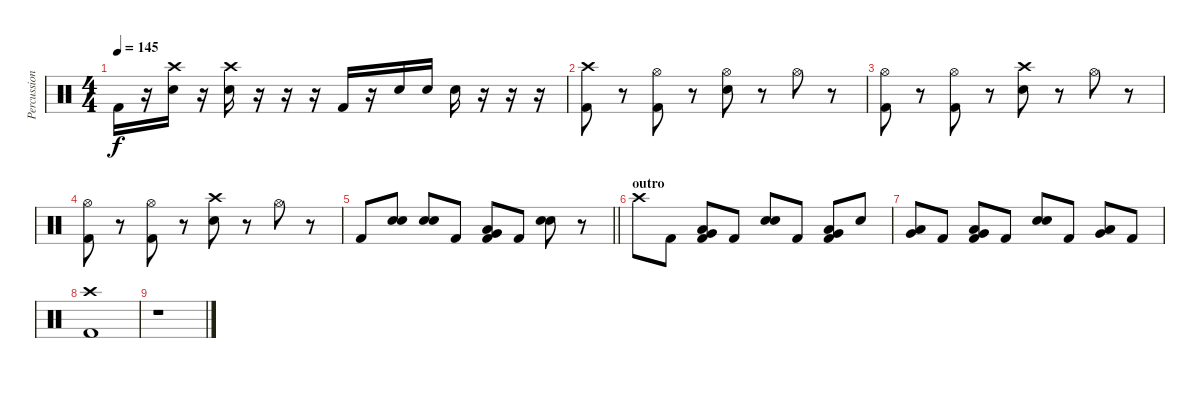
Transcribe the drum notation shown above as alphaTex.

\track ("Percussion" "Percussion") {instrument percussion}
\staff {score}
\articulation defaults
\ts (4 4)
\tempo 145
\clef neutral
\ks c "Kick (hit) 2".16{dy f}
r.16 ("Crash high (hit)" "Electric Snare (hit)").16 r.16 ("Crash high (hit)" "Electric Snare (hit)").16 r.16 r.16 r.16 "Kick (hit) 2".16 r.16 "Electric Snare (hit)".16 "Electric Snare (hit)".16 "Electric Snare (hit)".16 r.16 r.16 r.16 |
("Crash high (hit)" "Kick (hit) 2").8 r.8 ("Hi-Hat (open)" "Kick (hit) 2").8 r.8 ("Hi-Hat (open)" "Electric Snare (hit)").8 r.8 "Hi-Hat (open)".8 r.8 |
("Hi-Hat (open)" "Kick (hit) 2").8 r.8 ("Hi-Hat (open)" "Kick (hit) 2").8 r.8 ("Crash high (hit)" "Electric Snare (hit)").8 r.8 "Hi-Hat (open)".8 r.8 |
("Hi-Hat (open)" "Kick (hit) 2").8 r.8 ("Hi-Hat (open)" "Kick (hit) 2").8 r.8 ("Crash high (hit)" "Electric Snare (hit)").8 r.8 "Hi-Hat (open)".8 r.8 |
\barLineRight lightlight "Kick (hit) 2".8
("Electric Snare (hit)" "Electric Snare (hit)").8 ("Electric Snare (hit)" "Electric Snare (hit)").8 "Kick (hit) 2".8 ("Low Tom (hit)" "Very Low Tom (hit)" "Kick (hit) 2").8 "Kick (hit) 2".8 ("Electric Snare (hit)" "Electric Snare (hit)").8 r.8 |
\section ("" "outro")
"Crash high (hit)".8 "Kick (hit) 2".8 ("Low Tom (hit)" "Very Low Tom (hit)" "Kick (hit) 2").8 "Kick (hit) 2".8 ("Electric Snare (hit)" "Electric Snare (hit)").8 "Kick (hit) 2".8 ("Low Tom (hit)" "Very Low Tom (hit)" "Kick (hit) 2").8 "Electric Snare (hit)".8 |
("Low Tom (hit)" "Very Low Tom (hit)").8 "Kick (hit) 2".8 ("Low Tom (hit)" "Very Low Tom (hit)" "Kick (hit) 2").8 "Kick (hit) 2".8 ("Electric Snare (hit)" "Electric Snare (hit)").8 "Kick (hit) 2".8 ("Low Tom (hit)" "Very Low Tom (hit)").8 "Kick (hit) 2".8 |
("Crash high (hit)" "Kick (hit) 2").1 |
r.1
